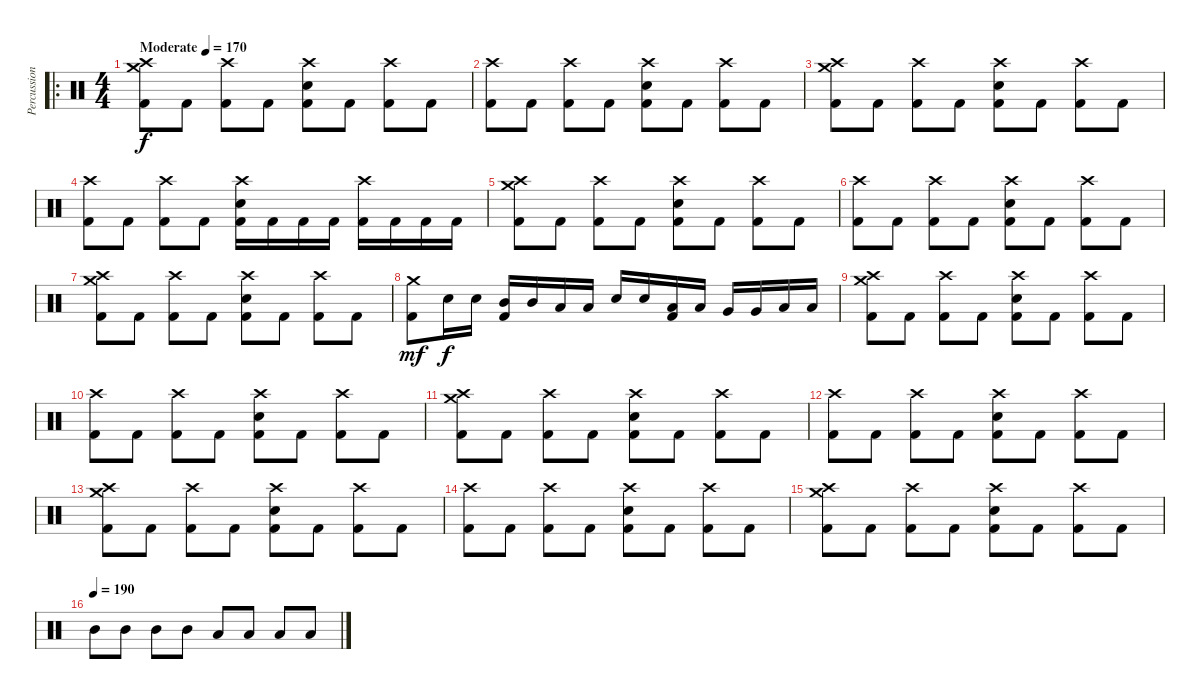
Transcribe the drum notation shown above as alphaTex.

\track ("Percussion" "Percussion") {instrument percussion}
\staff {score}
\articulation defaults
\ro
\ts (4 4)
\tempo (170 "Moderate")
\clef neutral
\ks c
("Crash medium (hit)" "Crash high (hit)" "Kick (hit) 2").8{dy f} "Kick (hit) 2".8 ("Crash high (hit)" "Kick (hit) 2").8 "Kick (hit) 2".8 ("Crash high (hit)" "Snare (hit) 2" "Kick (hit) 2").8 "Kick (hit) 2".8 ("Crash high (hit)" "Kick (hit) 2").8 "Kick (hit) 2".8 |
("Crash high (hit)" "Kick (hit) 2").8 "Kick (hit) 2".8 ("Crash high (hit)" "Kick (hit) 2").8 "Kick (hit) 2".8 ("Crash high (hit)" "Snare (hit) 2" "Kick (hit) 2").8 "Kick (hit) 2".8 ("Crash high (hit)" "Kick (hit) 2").8 "Kick (hit) 2".8 |
("Crash medium (hit)" "Crash high (hit)" "Kick (hit) 2").8 "Kick (hit) 2".8 ("Crash high (hit)" "Kick (hit) 2").8 "Kick (hit) 2".8 ("Crash high (hit)" "Snare (hit) 2" "Kick (hit) 2").8 "Kick (hit) 2".8 ("Crash high (hit)" "Kick (hit) 2").8 "Kick (hit) 2".8 |
("Crash high (hit)" "Kick (hit) 2").8 "Kick (hit) 2".8 ("Crash high (hit)" "Kick (hit) 2").8 "Kick (hit) 2".8 ("Crash high (hit)" "Snare (hit) 2" "Kick (hit) 2").16 "Kick (hit) 2".16 "Kick (hit) 2".16 "Kick (hit) 2".16 ("Crash high (hit)" "Kick (hit) 2").16 "Kick (hit) 2".16 "Kick (hit) 2".16 "Kick (hit) 2".16 |
("Crash medium (hit)" "Crash high (hit)" "Kick (hit) 2").8 "Kick (hit) 2".8 ("Crash high (hit)" "Kick (hit) 2").8 "Kick (hit) 2".8 ("Crash high (hit)" "Snare (hit) 2" "Kick (hit) 2").8 "Kick (hit) 2".8 ("Crash high (hit)" "Kick (hit) 2").8 "Kick (hit) 2".8 |
("Crash high (hit)" "Kick (hit) 2").8 "Kick (hit) 2".8 ("Crash high (hit)" "Kick (hit) 2").8 "Kick (hit) 2".8 ("Crash high (hit)" "Snare (hit) 2" "Kick (hit) 2").8 "Kick (hit) 2".8 ("Crash high (hit)" "Kick (hit) 2").8 "Kick (hit) 2".8 |
("Crash medium (hit)" "Crash high (hit)" "Kick (hit) 2").8 "Kick (hit) 2".8 ("Crash high (hit)" "Kick (hit) 2").8 "Kick (hit) 2".8 ("Crash high (hit)" "Snare (hit) 2" "Kick (hit) 2").8 "Kick (hit) 2".8 ("Crash high (hit)" "Kick (hit) 2").8 "Kick (hit) 2".8 |
("Kick (hit) 2" "Crash medium (hit)").8{dy mf} "Snare (hit) 2".16{dy f} "Snare (hit) 2".16 ("Kick (hit) 2" "Mid Tom (hit)").16 "Mid Tom (hit)".16 "Low Tom (hit)".16 "Low Tom (hit)".16 "Snare (hit) 2".16 "Snare (hit) 2".16 ("Kick (hit) 2" "Low Tom (hit)").16 "Low Tom (hit)".16 "Very Low Tom (hit)".16 "Very Low Tom (hit)".16 "Low Floor Tom (hit)".16 "Low Floor Tom (hit)".16 |
("Crash medium (hit)" "Crash high (hit)" "Kick (hit) 2").8 "Kick (hit) 2".8 ("Crash high (hit)" "Kick (hit) 2").8 "Kick (hit) 2".8 ("Crash high (hit)" "Snare (hit) 2" "Kick (hit) 2").8 "Kick (hit) 2".8 ("Crash high (hit)" "Kick (hit) 2").8 "Kick (hit) 2".8 |
("Crash high (hit)" "Kick (hit) 2").8 "Kick (hit) 2".8 ("Crash high (hit)" "Kick (hit) 2").8 "Kick (hit) 2".8 ("Crash high (hit)" "Snare (hit) 2" "Kick (hit) 2").8 "Kick (hit) 2".8 ("Crash high (hit)" "Kick (hit) 2").8 "Kick (hit) 2".8 |
("Crash medium (hit)" "Crash high (hit)" "Kick (hit) 2").8 "Kick (hit) 2".8 ("Crash high (hit)" "Kick (hit) 2").8 "Kick (hit) 2".8 ("Crash high (hit)" "Snare (hit) 2" "Kick (hit) 2").8 "Kick (hit) 2".8 ("Crash high (hit)" "Kick (hit) 2").8 "Kick (hit) 2".8 |
("Crash high (hit)" "Kick (hit) 2").8 "Kick (hit) 2".8 ("Crash high (hit)" "Kick (hit) 2").8 "Kick (hit) 2".8 ("Crash high (hit)" "Snare (hit) 2" "Kick (hit) 2").8 "Kick (hit) 2".8 ("Crash high (hit)" "Kick (hit) 2").8 "Kick (hit) 2".8 |
("Crash medium (hit)" "Crash high (hit)" "Kick (hit) 2").8 "Kick (hit) 2".8 ("Crash high (hit)" "Kick (hit) 2").8 "Kick (hit) 2".8 ("Crash high (hit)" "Snare (hit) 2" "Kick (hit) 2").8 "Kick (hit) 2".8 ("Crash high (hit)" "Kick (hit) 2").8 "Kick (hit) 2".8 |
("Crash high (hit)" "Kick (hit) 2").8 "Kick (hit) 2".8 ("Crash high (hit)" "Kick (hit) 2").8 "Kick (hit) 2".8 ("Crash high (hit)" "Snare (hit) 2" "Kick (hit) 2").8 "Kick (hit) 2".8 ("Crash high (hit)" "Kick (hit) 2").8 "Kick (hit) 2".8 |
("Crash medium (hit)" "Crash high (hit)" "Kick (hit) 2").8 "Kick (hit) 2".8 ("Crash high (hit)" "Kick (hit) 2").8 "Kick (hit) 2".8 ("Crash high (hit)" "Snare (hit) 2" "Kick (hit) 2").8 "Kick (hit) 2".8 ("Crash high (hit)" "Kick (hit) 2").8 "Kick (hit) 2".8 |
\tempo (190)
"Mid Tom (hit)".8 "Mid Tom (hit)".8 "Mid Tom (hit)".8 "Mid Tom (hit)".8 "Low Tom (hit)".8 "Low Tom (hit)".8 "Low Tom (hit)".8 "Low Tom (hit)".8
